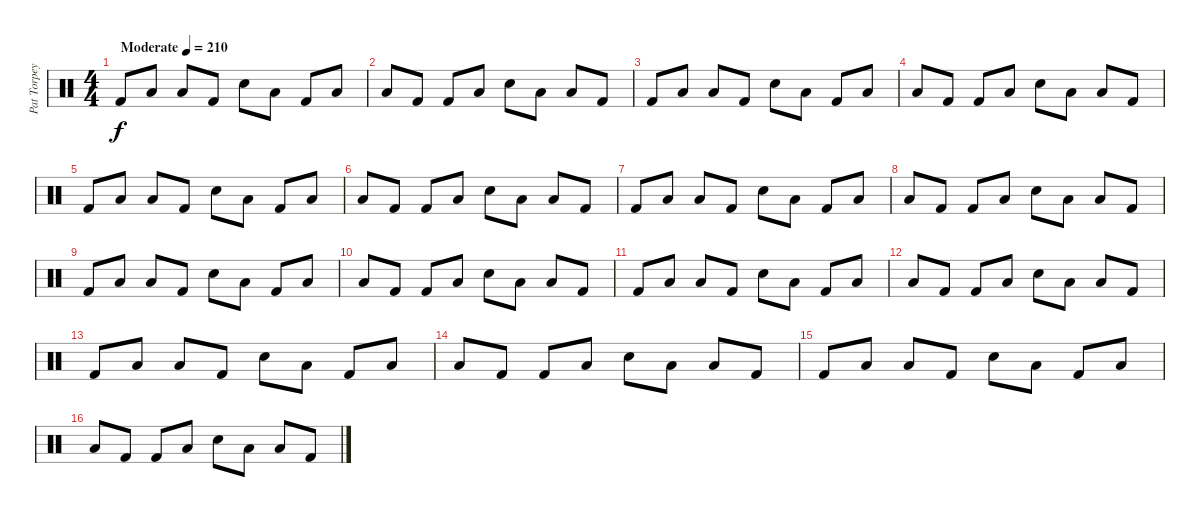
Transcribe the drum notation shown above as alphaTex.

\track ("Pat Torpey" "Pat Torpey") {instrument percussion}
\staff {score}
\articulation defaults
\ts (4 4)
\tempo (210 "Moderate")
\clef neutral
\ks c "Kick (hit) 2".8{dy f} "Low Floor Tom (hit)".8 "Low Floor Tom (hit)".8 "Kick (hit) 2".8 "Snare (hit) 2".8 "Low Floor Tom (hit)".8 "Kick (hit) 2".8 "Low Floor Tom (hit)".8
|
"Low Floor Tom (hit)".8 "Kick (hit) 2".8 "Kick (hit) 2".8 "Low Floor Tom (hit)".8 "Snare (hit) 2".8 "Low Floor Tom (hit)".8 "Low Floor Tom (hit)".8 "Kick (hit) 2".8 |
"Kick (hit) 2".8 "Low Floor Tom (hit)".8 "Low Floor Tom (hit)".8 "Kick (hit) 2".8 "Snare (hit) 2".8 "Low Floor Tom (hit)".8 "Kick (hit) 2".8 "Low Floor Tom (hit)".8 |
"Low Floor Tom (hit)".8 "Kick (hit) 2".8 "Kick (hit) 2".8 "Low Floor Tom (hit)".8 "Snare (hit) 2".8 "Low Floor Tom (hit)".8 "Low Floor Tom (hit)".8 "Kick (hit) 2".8 |
"Kick (hit) 2".8 "Low Floor Tom (hit)".8 "Low Floor Tom (hit)".8 "Kick (hit) 2".8 "Snare (hit) 2".8 "Low Floor Tom (hit)".8 "Kick (hit) 2".8 "Low Floor Tom (hit)".8 |
"Low Floor Tom (hit)".8 "Kick (hit) 2".8 "Kick (hit) 2".8 "Low Floor Tom (hit)".8 "Snare (hit) 2".8 "Low Floor Tom (hit)".8 "Low Floor Tom (hit)".8 "Kick (hit) 2".8 |
"Kick (hit) 2".8 "Low Floor Tom (hit)".8 "Low Floor Tom (hit)".8 "Kick (hit) 2".8 "Snare (hit) 2".8 "Low Floor Tom (hit)".8 "Kick (hit) 2".8 "Low Floor Tom (hit)".8 |
"Low Floor Tom (hit)".8 "Kick (hit) 2".8 "Kick (hit) 2".8 "Low Floor Tom (hit)".8 "Snare (hit) 2".8 "Low Floor Tom (hit)".8 "Low Floor Tom (hit)".8 "Kick (hit) 2".8 |
"Kick (hit) 2".8 "Low Floor Tom (hit)".8 "Low Floor Tom (hit)".8 "Kick (hit) 2".8 "Snare (hit) 2".8 "Low Floor Tom (hit)".8 "Kick (hit) 2".8 "Low Floor Tom (hit)".8 |
"Low Floor Tom (hit)".8 "Kick (hit) 2".8 "Kick (hit) 2".8 "Low Floor Tom (hit)".8 "Snare (hit) 2".8 "Low Floor Tom (hit)".8 "Low Floor Tom (hit)".8 "Kick (hit) 2".8 |
"Kick (hit) 2".8 "Low Floor Tom (hit)".8 "Low Floor Tom (hit)".8 "Kick (hit) 2".8 "Snare (hit) 2".8 "Low Floor Tom (hit)".8 "Kick (hit) 2".8 "Low Floor Tom (hit)".8 |
"Low Floor Tom (hit)".8 "Kick (hit) 2".8 "Kick (hit) 2".8 "Low Floor Tom (hit)".8 "Snare (hit) 2".8 "Low Floor Tom (hit)".8 "Low Floor Tom (hit)".8 "Kick (hit) 2".8 |
"Kick (hit) 2".8 "Low Floor Tom (hit)".8 "Low Floor Tom (hit)".8 "Kick (hit) 2".8 "Snare (hit) 2".8 "Low Floor Tom (hit)".8 "Kick (hit) 2".8 "Low Floor Tom (hit)".8 |
"Low Floor Tom (hit)".8 "Kick (hit) 2".8 "Kick (hit) 2".8 "Low Floor Tom (hit)".8 "Snare (hit) 2".8 "Low Floor Tom (hit)".8 "Low Floor Tom (hit)".8 "Kick (hit) 2".8 |
"Kick (hit) 2".8 "Low Floor Tom (hit)".8 "Low Floor Tom (hit)".8 "Kick (hit) 2".8 "Snare (hit) 2".8 "Low Floor Tom (hit)".8 "Kick (hit) 2".8 "Low Floor Tom (hit)".8 |
"Low Floor Tom (hit)".8 "Kick (hit) 2".8 "Kick (hit) 2".8 "Low Floor Tom (hit)".8 "Snare (hit) 2".8 "Low Floor Tom (hit)".8 "Low Floor Tom (hit)".8 "Kick (hit) 2".8
